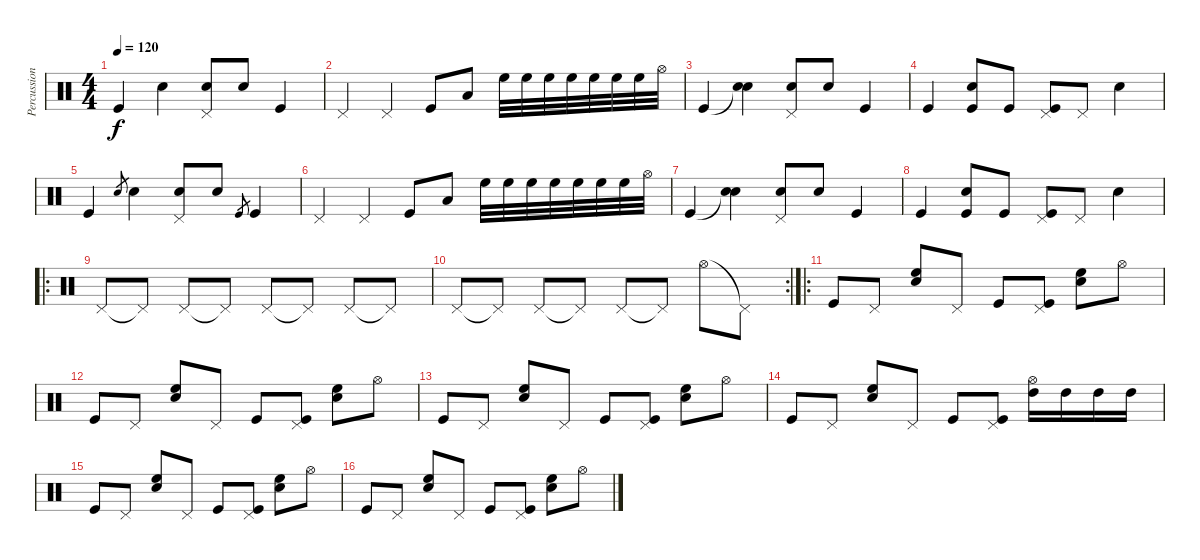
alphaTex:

\track ("Percussion" "Percussion") {instrument percussion}
\staff {score}
\articulation defaults
\ts (4 4)
\tempo 120
\clef neutral
\ks c "Kick (hit)".4{dy f} "Snare (hit) 2".4
("Pedal Hi-Hat (hit)" "Snare (hit) 2").8 "Snare (hit) 2".8 "Kick (hit)".4 |
"Pedal Hi-Hat (hit)".4 "Pedal Hi-Hat (hit)".4 "Kick (hit)".8 "Low Tom (hit)".8 "High Floor Tom (hit)".32 "High Floor Tom (hit)".32 "High Floor Tom (hit)".32 "High Floor Tom (hit)".32 "High Floor Tom (hit)".32 "High Floor Tom (hit)".32 "High Floor Tom (hit)".32 "Hi-Hat (open)".32 |
"Kick (hit)".4 ("Snare (hit)"{t} "Snare (hit) 2").4 ("Pedal Hi-Hat (hit)" "Snare (hit) 2").8 "Snare (hit) 2".8 "Kick (hit)".4 |
"Kick (hit)".4 ("Snare (hit) 2" "Kick (hit)").8 "Kick (hit)".8 ("Pedal Hi-Hat (hit)" "Kick (hit)").8 "Pedal Hi-Hat (hit)".8 "Electric Snare (hit)".4 |
"Kick (hit)".4 "Snare (hit) 2".8{gr} "Snare (hit) 2".4 ("Pedal Hi-Hat (hit)" "Snare (hit) 2").8 "Snare (hit) 2".8 "Kick (hit)".8{gr} "Kick (hit)".4 |
"Pedal Hi-Hat (hit)".4 "Pedal Hi-Hat (hit)".4 "Kick (hit)".8 "Low Tom (hit)".8 "High Floor Tom (hit)".32 "High Floor Tom (hit)".32 "High Floor Tom (hit)".32 "High Floor Tom (hit)".32 "High Floor Tom (hit)".32 "High Floor Tom (hit)".32 "High Floor Tom (hit)".32 "Hi-Hat (open)".32 |
"Kick (hit)".4 ("Snare (hit)"{t} "Snare (hit) 2").4 ("Pedal Hi-Hat (hit)" "Snare (hit) 2").8 "Snare (hit) 2".8 "Kick (hit)".4 |
"Kick (hit)".4 ("Snare (hit) 2" "Kick (hit)").8 "Kick (hit)".8 ("Pedal Hi-Hat (hit)" "Kick (hit)").8 "Pedal Hi-Hat (hit)".8 "Electric Snare (hit)".4 |
\ro "Pedal Hi-Hat (hit)".8 "Pedal Hi-Hat (hit)"{t}.8 "Pedal Hi-Hat (hit)".8 "Pedal Hi-Hat (hit)"{t}.8 "Pedal Hi-Hat (hit)".8 "Pedal Hi-Hat (hit)"{t}.8 "Pedal Hi-Hat (hit)".8 "Pedal Hi-Hat (hit)"{t}.8
|
\rc 2 "Pedal Hi-Hat (hit)".8 "Pedal Hi-Hat (hit)"{t}.8 "Pedal Hi-Hat (hit)".8 "Pedal Hi-Hat (hit)"{t}.8 "Pedal Hi-Hat (hit)".8 "Pedal Hi-Hat (hit)"{t}.8 "Hi-Hat (open)".8 "Pedal Hi-Hat (hit)"{t}.8
|
\ro "Kick (hit)".8 "Pedal Hi-Hat (hit)".8
("Electric Snare (hit)" "High Floor Tom (hit)").8 "Pedal Hi-Hat (hit)".8 "Kick (hit)".8 ("Pedal Hi-Hat (hit)" "Kick (hit)").8 ("Electric Snare (hit)" "High Floor Tom (hit)").8 "Hi-Hat (open)".8 |
"Kick (hit)".8 "Pedal Hi-Hat (hit)".8 ("Electric Snare (hit)" "High Floor Tom (hit)").8 "Pedal Hi-Hat (hit)".8 "Kick (hit)".8 ("Pedal Hi-Hat (hit)" "Kick (hit)").8 ("Electric Snare (hit)" "High Floor Tom (hit)").8 "Hi-Hat (open)".8 |
"Kick (hit)".8 "Pedal Hi-Hat (hit)".8 ("Electric Snare (hit)" "High Floor Tom (hit)").8 "Pedal Hi-Hat (hit)".8 "Kick (hit)".8 ("Pedal Hi-Hat (hit)" "Kick (hit)").8 ("Electric Snare (hit)" "High Floor Tom (hit)").8 "Hi-Hat (open)".8 |
"Kick (hit)".8 "Pedal Hi-Hat (hit)".8 ("Electric Snare (hit)" "High Floor Tom (hit)").8 "Pedal Hi-Hat (hit)".8 "Kick (hit)".8 ("Pedal Hi-Hat (hit)" "Kick (hit)").8 ("Hi-Hat (open)" "High Tom (hit)").16 "High Tom (hit)".16 "High Tom (hit)".16 "High Tom (hit)".16 |
"Kick (hit)".8 "Pedal Hi-Hat (hit)".8 ("Electric Snare (hit)" "High Floor Tom (hit)").8 "Pedal Hi-Hat (hit)".8 "Kick (hit)".8 ("Pedal Hi-Hat (hit)" "Kick (hit)").8 ("Electric Snare (hit)" "High Floor Tom (hit)").8 "Hi-Hat (open)".8 |
"Kick (hit)".8 "Pedal Hi-Hat (hit)".8 ("Electric Snare (hit)" "High Floor Tom (hit)").8 "Pedal Hi-Hat (hit)".8 "Kick (hit)".8 ("Pedal Hi-Hat (hit)" "Kick (hit)").8 ("Electric Snare (hit)" "High Floor Tom (hit)").8 "Hi-Hat (open)".8
